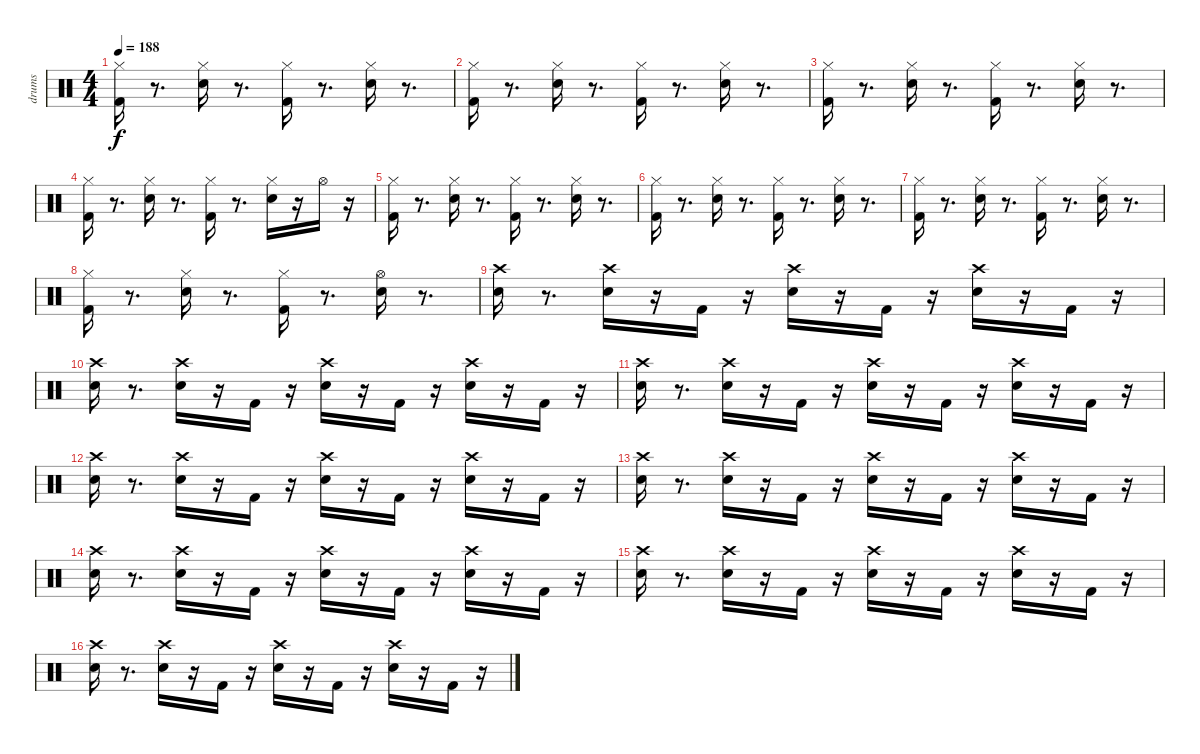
\track ("drums" "drums") {instrument percussion}
\staff {score}
\articulation defaults
\ts (4 4)
\tempo 188
\clef neutral
\ks c
("Kick (hit) 2" "Hi-Hat (closed)").16{dy f} r.8{d} ("Snare (hit) 2" "Hi-Hat (closed)").16 r.8{d} ("Kick (hit) 2" "Hi-Hat (closed)").16 r.8{d} ("Snare (hit) 2" "Hi-Hat (closed)").16 r.8{d} |
("Kick (hit) 2" "Hi-Hat (closed)").16 r.8{d} ("Snare (hit) 2" "Hi-Hat (closed)").16 r.8{d} ("Kick (hit) 2" "Hi-Hat (closed)").16 r.8{d} ("Snare (hit) 2" "Hi-Hat (closed)").16 r.8{d} |
("Kick (hit) 2" "Hi-Hat (closed)").16 r.8{d} ("Snare (hit) 2" "Hi-Hat (closed)").16 r.8{d} ("Kick (hit) 2" "Hi-Hat (closed)").16 r.8{d} ("Snare (hit) 2" "Hi-Hat (closed)").16 r.8{d} |
("Kick (hit) 2" "Hi-Hat (closed)").16 r.8{d} ("Snare (hit) 2" "Hi-Hat (closed)").16 r.8{d} ("Kick (hit) 2" "Hi-Hat (closed)").16 r.8{d} ("Snare (hit) 2" "Hi-Hat (closed)").16 r.16 "Hi-Hat (open)".16 r.16 |
("Kick (hit) 2" "Hi-Hat (closed)").16 r.8{d} ("Snare (hit) 2" "Hi-Hat (closed)").16 r.8{d} ("Kick (hit) 2" "Hi-Hat (closed)").16 r.8{d} ("Snare (hit) 2" "Hi-Hat (closed)").16 r.8{d} |
("Kick (hit) 2" "Hi-Hat (closed)").16 r.8{d} ("Snare (hit) 2" "Hi-Hat (closed)").16 r.8{d} ("Kick (hit) 2" "Hi-Hat (closed)").16 r.8{d} ("Snare (hit) 2" "Hi-Hat (closed)").16 r.8{d} |
("Kick (hit) 2" "Hi-Hat (closed)").16 r.8{d} ("Snare (hit) 2" "Hi-Hat (closed)").16 r.8{d} ("Kick (hit) 2" "Hi-Hat (closed)").16 r.8{d} ("Snare (hit) 2" "Hi-Hat (closed)").16 r.8{d} |
("Kick (hit) 2" "Hi-Hat (closed)").16 r.8{d} ("Snare (hit) 2" "Hi-Hat (closed)").16 r.8{d} ("Kick (hit) 2" "Hi-Hat (closed)").16 r.8{d} ("Snare (hit) 2" "Hi-Hat (open)").16 r.8{d} |
("Snare (hit) 2" "Crash high (hit)").16 r.8{d} ("Snare (hit) 2" "Crash high (hit)").16 r.16 "Kick (hit) 2".16 r.16 ("Snare (hit) 2" "Crash high (hit)").16 r.16 "Kick (hit) 2".16 r.16 ("Snare (hit) 2" "Crash high (hit)").16 r.16 "Kick (hit) 2".16 r.16 |
("Snare (hit) 2" "Crash high (hit)").16 r.8{d} ("Snare (hit) 2" "Crash high (hit)").16 r.16 "Kick (hit) 2".16 r.16 ("Snare (hit) 2" "Crash high (hit)").16 r.16 "Kick (hit) 2".16 r.16 ("Snare (hit) 2" "Crash high (hit)").16 r.16 "Kick (hit) 2".16 r.16 |
("Snare (hit) 2" "Crash high (hit)").16 r.8{d} ("Snare (hit) 2" "Crash high (hit)").16 r.16 "Kick (hit) 2".16 r.16 ("Snare (hit) 2" "Crash high (hit)").16 r.16 "Kick (hit) 2".16 r.16 ("Snare (hit) 2" "Crash high (hit)").16 r.16 "Kick (hit) 2".16 r.16 |
("Snare (hit) 2" "Crash high (hit)").16 r.8{d} ("Snare (hit) 2" "Crash high (hit)").16 r.16 "Kick (hit) 2".16 r.16 ("Snare (hit) 2" "Crash high (hit)").16 r.16 "Kick (hit) 2".16 r.16 ("Snare (hit) 2" "Crash high (hit)").16 r.16 "Kick (hit) 2".16 r.16 |
("Snare (hit) 2" "Crash high (hit)").16 r.8{d} ("Snare (hit) 2" "Crash high (hit)").16 r.16 "Kick (hit) 2".16 r.16 ("Snare (hit) 2" "Crash high (hit)").16 r.16 "Kick (hit) 2".16 r.16 ("Snare (hit) 2" "Crash high (hit)").16 r.16 "Kick (hit) 2".16 r.16 |
("Snare (hit) 2" "Crash high (hit)").16 r.8{d} ("Snare (hit) 2" "Crash high (hit)").16 r.16 "Kick (hit) 2".16 r.16 ("Snare (hit) 2" "Crash high (hit)").16 r.16 "Kick (hit) 2".16 r.16 ("Snare (hit) 2" "Crash high (hit)").16 r.16 "Kick (hit) 2".16 r.16 |
("Snare (hit) 2" "Crash high (hit)").16 r.8{d} ("Snare (hit) 2" "Crash high (hit)").16 r.16 "Kick (hit) 2".16 r.16 ("Snare (hit) 2" "Crash high (hit)").16 r.16 "Kick (hit) 2".16 r.16 ("Snare (hit) 2" "Crash high (hit)").16 r.16 "Kick (hit) 2".16 r.16 |
("Snare (hit) 2" "Crash high (hit)").16 r.8{d} ("Snare (hit) 2" "Crash high (hit)").16 r.16 "Kick (hit) 2".16 r.16 ("Snare (hit) 2" "Crash high (hit)").16 r.16 "Kick (hit) 2".16 r.16 ("Snare (hit) 2" "Crash high (hit)").16 r.16 "Kick (hit) 2".16 r.16
